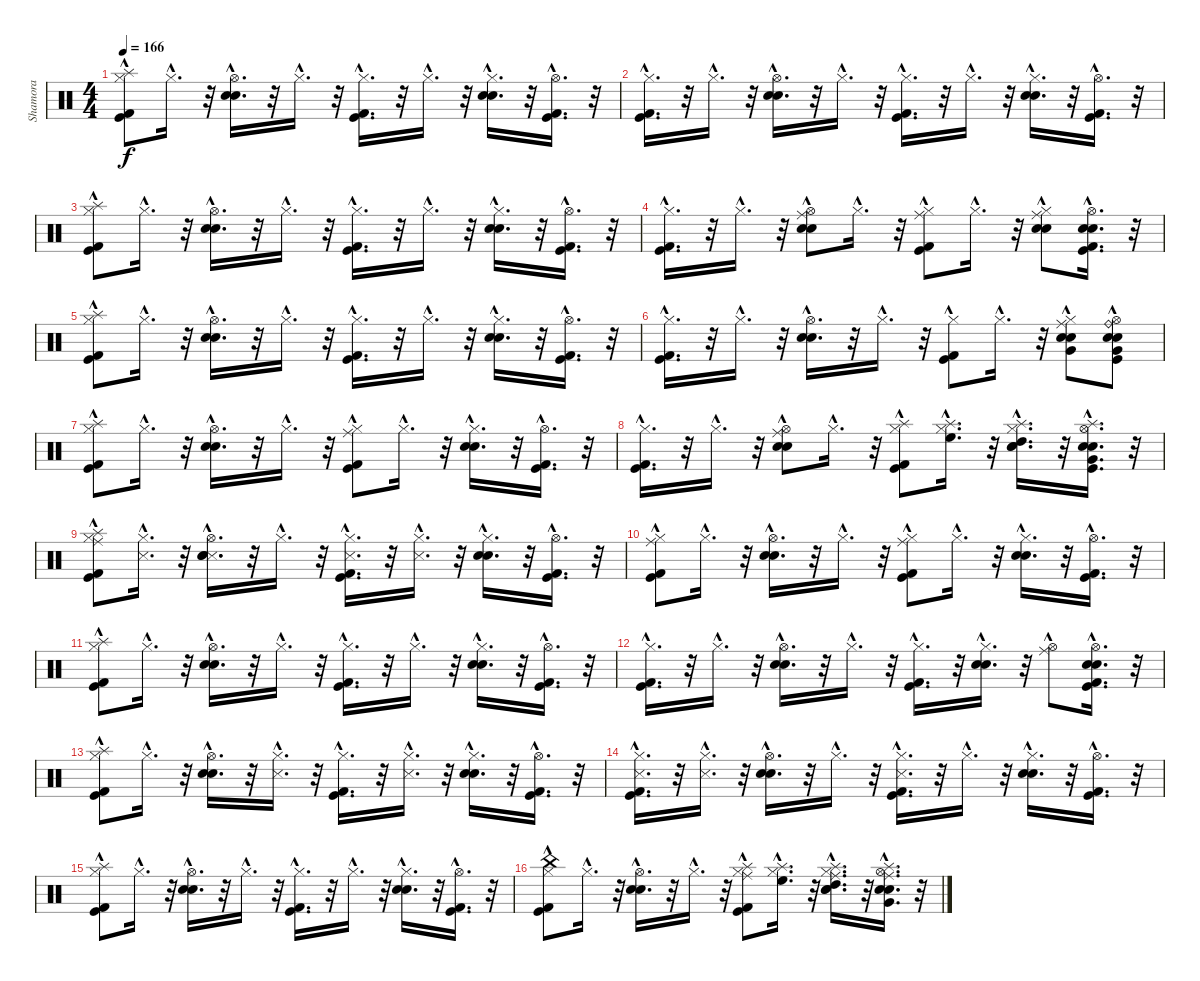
\track ("Shamora" "Shamora") {instrument percussion}
\staff {score}
\articulation defaults
\ts (4 4)
\tempo 166
\clef neutral
\ks c
("Hi-Hat (closed)"{hac} "Kick (hit) 2"{hac} "Kick (hit)"{hac} "Splash (hit)").8{dy f} "Hi-Hat (closed)"{hac}.16{d} r.32 ("Hi-Hat (open)"{hac} "Snare (hit) 2"{hac} "Electric Snare (hit)"{hac}).16{d} r.32 "Hi-Hat (closed)"{hac}.16{d} r.32 ("Hi-Hat (closed)"{hac} "Kick (hit)"{hac} "Kick (hit) 2"{hac}).16{d} r.32 "Hi-Hat (closed)"{hac}.16{d} r.32 ("Hi-Hat (closed)"{hac} "Snare (hit) 2"{hac} "Electric Snare (hit)"{hac}).16{d} r.32 ("Hi-Hat (open)"{hac} "Kick (hit)"{hac} "Kick (hit) 2"{hac}).16{d} r.32 |
("Hi-Hat (closed)"{hac} "Kick (hit) 2"{hac} "Kick (hit)"{hac}).16{d} r.32 "Hi-Hat (closed)"{hac}.16{d} r.32 ("Hi-Hat (open)"{hac} "Snare (hit) 2"{hac} "Electric Snare (hit)"{hac}).16{d} r.32 "Hi-Hat (closed)"{hac}.16{d} r.32 ("Hi-Hat (closed)"{hac} "Kick (hit)"{hac} "Kick (hit) 2"{hac}).16{d} r.32 "Hi-Hat (closed)"{hac}.16{d} r.32 ("Hi-Hat (closed)"{hac} "Snare (hit) 2"{hac} "Electric Snare (hit)"{hac}).16{d} r.32 ("Hi-Hat (open)"{hac} "Kick (hit)"{hac} "Kick (hit) 2"{hac}).16{d} r.32 |
("Splash (hit)" "Hi-Hat (closed)"{hac} "Kick (hit) 2"{hac} "Kick (hit)"{hac}).8 "Hi-Hat (closed)"{hac}.16{d} r.32 ("Hi-Hat (open)"{hac} "Snare (hit) 2"{hac} "Electric Snare (hit)"{hac}).16{d} r.32 "Hi-Hat (closed)"{hac}.16{d} r.32 ("Hi-Hat (closed)"{hac} "Kick (hit)"{hac} "Kick (hit) 2"{hac}).16{d} r.32 "Hi-Hat (closed)"{hac}.16{d} r.32 ("Hi-Hat (closed)"{hac} "Snare (hit) 2"{hac} "Electric Snare (hit)"{hac}).16{d} r.32 ("Hi-Hat (open)"{hac} "Kick (hit)"{hac} "Kick (hit) 2"{hac}).16{d} r.32 |
("Hi-Hat (closed)"{hac} "Kick (hit) 2"{hac} "Kick (hit)"{hac}).16{d} r.32 "Hi-Hat (closed)"{hac}.16{d} r.32 ("Ride (middle)" "Hi-Hat (open)"{hac} "Snare (hit) 2"{hac} "Electric Snare (hit)"{hac}).8 "Hi-Hat (closed)"{hac}.16{d} r.32 ("Ride (middle)" "Hi-Hat (closed)"{hac} "Kick (hit)"{hac} "Kick (hit) 2"{hac}).8 "Hi-Hat (closed)"{hac}.16{d} r.32 ("Ride (middle)" "Hi-Hat (closed)"{hac} "Snare (hit) 2"{hac} "Electric Snare (hit)"{hac}).8 ("Snare (hit) 2"{hac} "Electric Snare (hit)"{hac} "Hi-Hat (open)"{hac} "Kick (hit)"{hac} "Kick (hit) 2"{hac}).16{d} r.32 |
("Hi-Hat (closed)"{hac} "Kick (hit) 2"{hac} "Kick (hit)"{hac} "Splash (hit)").8 "Hi-Hat (closed)"{hac}.16{d} r.32 ("Hi-Hat (open)"{hac} "Snare (hit) 2"{hac} "Electric Snare (hit)"{hac}).16{d} r.32 "Hi-Hat (closed)"{hac}.16{d} r.32 ("Hi-Hat (closed)"{hac} "Kick (hit)"{hac} "Kick (hit) 2"{hac}).16{d} r.32 "Hi-Hat (closed)"{hac}.16{d} r.32 ("Hi-Hat (closed)"{hac} "Snare (hit) 2"{hac} "Electric Snare (hit)"{hac}).16{d} r.32 ("Hi-Hat (open)"{hac} "Kick (hit)"{hac} "Kick (hit) 2"{hac}).16{d} r.32 |
("Hi-Hat (closed)"{hac} "Kick (hit) 2"{hac} "Kick (hit)"{hac}).16{d} r.32 "Hi-Hat (closed)"{hac}.16{d} r.32 ("Hi-Hat (open)"{hac} "Snare (hit) 2"{hac} "Electric Snare (hit)"{hac}).16{d} r.32 "Hi-Hat (closed)"{hac}.16{d} r.32 ("Hi-Hat (closed)"{hac} "Kick (hit)"{hac} "Kick (hit) 2"{hac}).8 "Hi-Hat (closed)"{hac}.16{d} r.32 ("Ride (middle)" "Very Low Tom (hit)"{hac} "Hi-Hat (closed)"{hac} "Snare (hit) 2"{hac} "Electric Snare (hit)"{hac}).8 ("Ride (bell)" "Very Low Tom (hit)"{hac} "Snare (hit) 2"{hac} "Electric Snare (hit)"{hac} "Hi-Hat (open)"{hac} "Kick (hit)"{hac}).8 |
("Splash (hit)" "Hi-Hat (closed)"{hac} "Kick (hit) 2"{hac} "Kick (hit)"{hac}).8 "Hi-Hat (closed)"{hac}.16{d} r.32 ("Hi-Hat (open)"{hac} "Snare (hit) 2"{hac} "Electric Snare (hit)"{hac}).16{d} r.32 "Hi-Hat (closed)"{hac}.16{d} r.32 ("Ride (middle)" "Hi-Hat (closed)"{hac} "Kick (hit)"{hac} "Kick (hit) 2"{hac}).8 "Hi-Hat (closed)"{hac}.16{d} r.32 ("Hi-Hat (closed)"{hac} "Snare (hit) 2"{hac} "Electric Snare (hit)"{hac}).16{d} r.32 ("Hi-Hat (open)"{hac} "Kick (hit)"{hac} "Kick (hit) 2"{hac}).16{d} r.32 |
("Hi-Hat (closed)"{hac} "Kick (hit) 2"{hac} "Kick (hit)"{hac}).16{d} r.32 "Hi-Hat (closed)"{hac}.16{d} r.32 ("Ride (middle)" "Hi-Hat (open)"{hac} "Snare (hit) 2"{hac} "Electric Snare (hit)"{hac}).8 "Hi-Hat (closed)"{hac}.16{d} r.32 ("Splash (hit)"{hac} "Hi-Hat (closed)"{hac} "Kick (hit)"{hac} "Kick (hit) 2"{hac}).8 ("High Floor Tom (hit)"{hac} "Splash (hit)"{hac} "Hi-Hat (closed)"{hac}).16{d} r.32 ("High Tom (hit)"{hac} "Splash (hit)"{hac} "Hi-Hat (closed)"{hac} "Snare (hit) 2"{hac} "Electric Snare (hit)"{hac}).16{d} r.32 ("Very Low Tom (hit)"{hac} "Splash (hit)"{hac} "Snare (hit) 2"{hac} "Electric Snare (hit)"{hac} "Hi-Hat (open)"{hac} "Kick (hit)"{hac}).16{d} r.32 |
("Ride (middle)" "Hi-Hat (closed)"{hac} "Kick (hit) 2"{hac} "Kick (hit)"{hac} "Splash (hit)").8 ("Snare (side stick) 3"{hac} "Hi-Hat (closed)"{hac}).16{d} r.32 ("Snare (side stick) 3"{hac} "Hi-Hat (open)"{hac} "Snare (hit) 2"{hac} "Electric Snare (hit)"{hac}).16{d} r.32 "Hi-Hat (closed)"{hac}.16{d} r.32 ("Snare (side stick) 3"{hac} "Hi-Hat (closed)"{hac} "Kick (hit)"{hac} "Kick (hit) 2"{hac}).16{d} r.32 ("Snare (side stick) 3"{hac} "Hi-Hat (closed)"{hac}).16{d} r.32 ("Hi-Hat (closed)"{hac} "Snare (hit) 2"{hac} "Electric Snare (hit)"{hac}).16{d} r.32 ("Hi-Hat (open)"{hac} "Kick (hit)"{hac} "Kick (hit) 2"{hac}).16{d} r.32 |
("Ride (middle)" "Hi-Hat (closed)"{hac} "Kick (hit) 2"{hac} "Kick (hit)"{hac}).8 "Hi-Hat (closed)"{hac}.16{d} r.32 ("Hi-Hat (open)"{hac} "Snare (hit) 2"{hac} "Electric Snare (hit)"{hac}).16{d} r.32 "Hi-Hat (closed)"{hac}.16{d} r.32 ("Ride (middle)" "Hi-Hat (closed)"{hac} "Kick (hit)"{hac} "Kick (hit) 2"{hac}).8 "Hi-Hat (closed)"{hac}.16{d} r.32 ("Hi-Hat (closed)"{hac} "Snare (hit) 2"{hac} "Electric Snare (hit)"{hac}).16{d} r.32 ("Hi-Hat (open)"{hac} "Kick (hit)"{hac} "Kick (hit) 2"{hac}).16{d} r.32 |
("Splash (hit)" "Hi-Hat (closed)"{hac} "Kick (hit) 2"{hac} "Kick (hit)"{hac}).8 "Hi-Hat (closed)"{hac}.16{d} r.32 ("Hi-Hat (open)"{hac} "Snare (hit) 2"{hac} "Electric Snare (hit)"{hac}).16{d} r.32 "Hi-Hat (closed)"{hac}.16{d} r.32 ("Hi-Hat (closed)"{hac} "Kick (hit)"{hac} "Kick (hit) 2"{hac}).16{d} r.32 "Hi-Hat (closed)"{hac}.16{d} r.32 ("Hi-Hat (closed)"{hac} "Snare (hit) 2"{hac} "Electric Snare (hit)"{hac}).16{d} r.32 ("Hi-Hat (open)"{hac} "Kick (hit)"{hac} "Kick (hit) 2"{hac}).16{d} r.32 |
("Hi-Hat (closed)"{hac} "Kick (hit) 2"{hac} "Kick (hit)"{hac}).16{d} r.32 "Hi-Hat (closed)"{hac}.16{d} r.32 ("Hi-Hat (open)"{hac} "Snare (hit) 2"{hac} "Electric Snare (hit)"{hac}).16{d} r.32 "Hi-Hat (closed)"{hac}.16{d} r.32 ("Hi-Hat (closed)"{hac} "Kick (hit)"{hac} "Kick (hit) 2"{hac}).16{d} r.32 ("Snare (hit) 2"{hac} "Electric Snare (hit)"{hac} "Hi-Hat (closed)"{hac}).16{d} r.32 ("Ride (middle)" "Hi-Hat (open)"{hac}).8 ("Hi-Hat (open)"{hac} "Snare (hit) 2"{hac} "Electric Snare (hit)"{hac} "Kick (hit)"{hac} "Kick (hit) 2"{hac}).16{d} r.32 |
("Hi-Hat (closed)"{hac} "Kick (hit) 2"{hac} "Kick (hit)"{hac} "Splash (hit)").8 "Hi-Hat (closed)"{hac}.16{d} r.32 ("Hi-Hat (open)"{hac} "Snare (hit) 2"{hac} "Electric Snare (hit)"{hac}).16{d} r.32 ("Snare (side stick) 3"{hac} "Hi-Hat (closed)"{hac}).16{d} r.32 ("Hi-Hat (closed)"{hac} "Kick (hit)"{hac} "Kick (hit) 2"{hac}).16{d} r.32 ("Snare (side stick) 3"{hac} "Hi-Hat (closed)"{hac}).16{d} r.32 ("Hi-Hat (closed)"{hac} "Snare (hit) 2"{hac} "Electric Snare (hit)"{hac}).16{d} r.32 ("Hi-Hat (open)"{hac} "Kick (hit)"{hac} "Kick (hit) 2"{hac}).16{d} r.32 |
("Snare (side stick) 3"{hac} "Hi-Hat (closed)"{hac} "Kick (hit) 2"{hac} "Kick (hit)"{hac}).16{d} r.32 ("Snare (side stick) 3"{hac} "Hi-Hat (closed)"{hac}).16{d} r.32 ("Hi-Hat (open)"{hac} "Snare (hit) 2"{hac} "Electric Snare (hit)"{hac}).16{d} r.32 "Hi-Hat (closed)"{hac}.16{d} r.32 ("Snare (side stick) 3"{hac} "Hi-Hat (closed)"{hac} "Kick (hit)"{hac} "Kick (hit) 2"{hac}).16{d} r.32 "Hi-Hat (closed)"{hac}.16{d} r.32 ("Hi-Hat (closed)"{hac} "Snare (hit) 2"{hac} "Electric Snare (hit)"{hac}).16{d} r.32 ("Hi-Hat (open)"{hac} "Kick (hit)"{hac} "Kick (hit) 2"{hac}).16{d} r.32 |
("Splash (hit)" "Hi-Hat (closed)"{hac} "Kick (hit) 2"{hac} "Kick (hit)"{hac}).8 "Hi-Hat (closed)"{hac}.16{d} r.32 ("Hi-Hat (open)"{hac} "Snare (hit) 2"{hac} "Electric Snare (hit)"{hac}).16{d} r.32 "Hi-Hat (closed)"{hac}.16{d} r.32 ("Hi-Hat (closed)"{hac} "Kick (hit)"{hac} "Kick (hit) 2"{hac}).16{d} r.32 "Hi-Hat (closed)"{hac}.16{d} r.32 ("Hi-Hat (closed)"{hac} "Snare (hit) 2"{hac} "Electric Snare (hit)"{hac}).16{d} r.32 ("Hi-Hat (open)"{hac} "Kick (hit)"{hac} "Kick (hit) 2"{hac}).16{d} r.32 |
("China (hit)" "Hi-Hat (closed)"{hac} "Kick (hit) 2"{hac} "Kick (hit)"{hac}).8 "Hi-Hat (closed)"{hac}.16{d} r.32 ("Hi-Hat (open)"{hac} "Snare (hit) 2"{hac} "Electric Snare (hit)"{hac}).16{d} r.32 "Hi-Hat (closed)"{hac}.16{d} r.32 ("Ride (middle)"{hac} "Splash (hit)"{hac} "Hi-Hat (closed)"{hac} "Kick (hit)"{hac} "Kick (hit) 2"{hac}).8 ("High Floor Tom (hit)"{hac} "Splash (hit)"{hac} "Hi-Hat (closed)"{hac}).16{d} r.32 ("Ride (middle)"{hac} "High Tom (hit)"{hac} "Splash (hit)"{hac} "Hi-Hat (closed)"{hac} "Snare (hit) 2"{hac} "Electric Snare (hit)"{hac}).16{d} r.32 ("Ride (middle)"{hac} "Very Low Tom (hit)"{hac} "Splash (hit)"{hac} "Snare (hit) 2"{hac} "Electric Snare (hit)"{hac} "Hi-Hat (open)"{hac}).16{d} r.32
